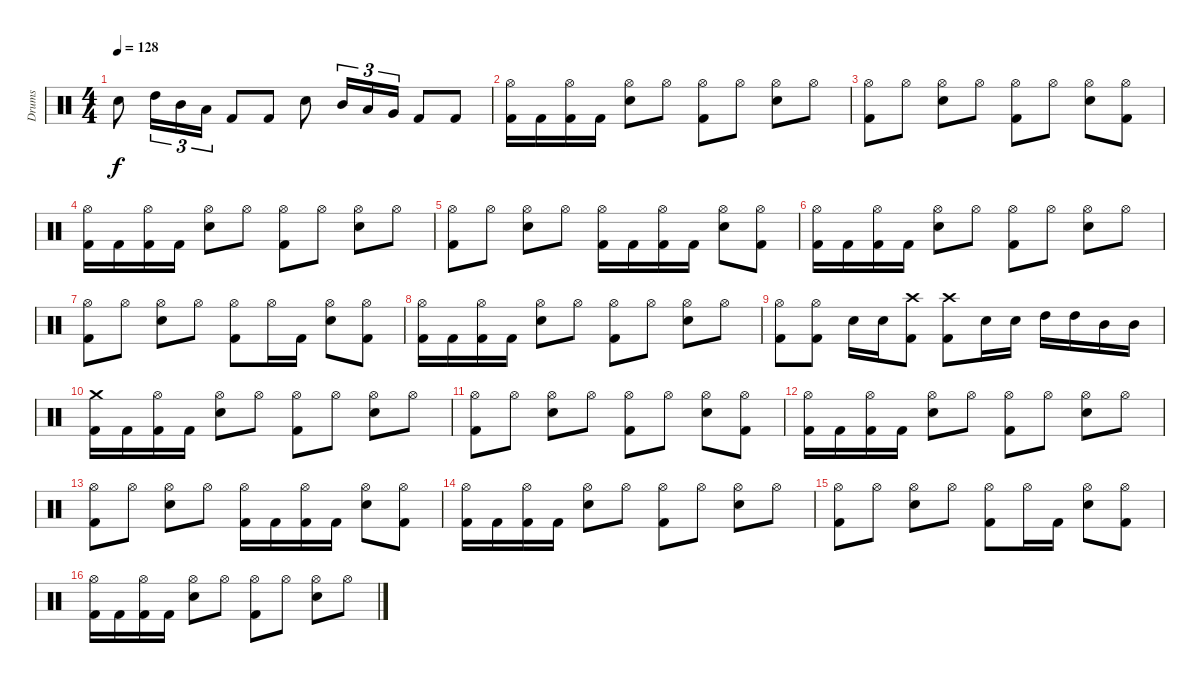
\track ("Drums" "Drums") {instrument percussion}
\staff {score}
\articulation defaults
\ts (4 4)
\tempo 128
\clef neutral
\ks c "Snare (hit) 2".8{dy f} "High Tom (hit)".16{tu (3 2)} "Mid Tom (hit)".16{tu (3 2)} "Low Tom (hit)".16{tu (3 2)} "Kick (hit) 2".8 "Kick (hit) 2".8 "Snare (hit) 2".8 "Mid Tom (hit)".16{tu (3 2)} "Low Tom (hit)".16{tu (3 2)} "Very Low Tom (hit)".16{tu (3 2)} "Kick (hit) 2".8 "Kick (hit) 2".8
|
("Hi-Hat (open)" "Kick (hit) 2").16 "Kick (hit) 2".16 ("Hi-Hat (open)" "Kick (hit) 2").16 "Kick (hit) 2".16 ("Hi-Hat (open)" "Snare (hit) 2").8 "Hi-Hat (open)".8 ("Hi-Hat (open)" "Kick (hit) 2").8 "Hi-Hat (open)".8 ("Hi-Hat (open)" "Snare (hit) 2").8 "Hi-Hat (open)".8 |
("Hi-Hat (open)" "Kick (hit) 2").8 "Hi-Hat (open)".8 ("Hi-Hat (open)" "Snare (hit) 2").8 "Hi-Hat (open)".8 ("Hi-Hat (open)" "Kick (hit) 2").8 "Hi-Hat (open)".8 ("Hi-Hat (open)" "Snare (hit) 2").8 ("Hi-Hat (open)" "Kick (hit) 2").8 |
("Hi-Hat (open)" "Kick (hit) 2").16 "Kick (hit) 2".16 ("Hi-Hat (open)" "Kick (hit) 2").16 "Kick (hit) 2".16 ("Hi-Hat (open)" "Snare (hit) 2").8 "Hi-Hat (open)".8 ("Hi-Hat (open)" "Kick (hit) 2").8 "Hi-Hat (open)".8 ("Hi-Hat (open)" "Snare (hit) 2").8 "Hi-Hat (open)".8 |
("Hi-Hat (open)" "Kick (hit) 2").8 "Hi-Hat (open)".8 ("Hi-Hat (open)" "Snare (hit) 2").8 "Hi-Hat (open)".8 ("Hi-Hat (open)" "Kick (hit) 2").16 "Kick (hit) 2".16 ("Hi-Hat (open)" "Kick (hit) 2").16 "Kick (hit) 2".16 ("Hi-Hat (open)" "Snare (hit) 2").8 ("Hi-Hat (open)" "Kick (hit) 2").8 |
("Hi-Hat (open)" "Kick (hit) 2").16 "Kick (hit) 2".16 ("Hi-Hat (open)" "Kick (hit) 2").16 "Kick (hit) 2".16 ("Hi-Hat (open)" "Snare (hit) 2").8 "Hi-Hat (open)".8 ("Hi-Hat (open)" "Kick (hit) 2").8 "Hi-Hat (open)".8 ("Hi-Hat (open)" "Snare (hit) 2").8 "Hi-Hat (open)".8 |
("Hi-Hat (open)" "Kick (hit) 2").8 "Hi-Hat (open)".8 ("Hi-Hat (open)" "Snare (hit) 2").8 "Hi-Hat (open)".8 ("Hi-Hat (open)" "Kick (hit) 2").8 "Hi-Hat (open)".16 "Kick (hit) 2".16 ("Hi-Hat (open)" "Snare (hit) 2").8 ("Hi-Hat (open)" "Kick (hit) 2").8 |
("Hi-Hat (open)" "Kick (hit) 2").16 "Kick (hit) 2".16 ("Hi-Hat (open)" "Kick (hit) 2").16 "Kick (hit) 2".16 ("Hi-Hat (open)" "Snare (hit) 2").8 "Hi-Hat (open)".8 ("Hi-Hat (open)" "Kick (hit) 2").8 "Hi-Hat (open)".8 ("Hi-Hat (open)" "Snare (hit) 2").8 "Hi-Hat (open)".8 |
("Hi-Hat (open)" "Kick (hit) 2").8 ("Hi-Hat (open)" "Kick (hit) 2").8 "Snare (hit) 2".16 "Snare (hit) 2".16 ("Crash high (hit)" "Kick (hit) 2").8 ("Crash high (hit)" "Kick (hit) 2").8 "Snare (hit) 2".16 "Snare (hit) 2".16 "High Tom (hit)".16 "High Tom (hit)".16 "Mid Tom (hit)".16 "Mid Tom (hit)".16 |
("Crash medium (hit)" "Kick (hit) 2").16 "Kick (hit) 2".16 ("Hi-Hat (open)" "Kick (hit) 2").16 "Kick (hit) 2".16 ("Hi-Hat (open)" "Snare (hit) 2").8 "Hi-Hat (open)".8 ("Hi-Hat (open)" "Kick (hit) 2").8 "Hi-Hat (open)".8 ("Hi-Hat (open)" "Snare (hit) 2").8 "Hi-Hat (open)".8 |
("Hi-Hat (open)" "Kick (hit) 2").8 "Hi-Hat (open)".8 ("Hi-Hat (open)" "Snare (hit) 2").8 "Hi-Hat (open)".8 ("Hi-Hat (open)" "Kick (hit) 2").8 "Hi-Hat (open)".8 ("Hi-Hat (open)" "Snare (hit) 2").8 ("Hi-Hat (open)" "Kick (hit) 2").8 |
("Hi-Hat (open)" "Kick (hit) 2").16 "Kick (hit) 2".16 ("Hi-Hat (open)" "Kick (hit) 2").16 "Kick (hit) 2".16 ("Hi-Hat (open)" "Snare (hit) 2").8 "Hi-Hat (open)".8 ("Hi-Hat (open)" "Kick (hit) 2").8 "Hi-Hat (open)".8 ("Hi-Hat (open)" "Snare (hit) 2").8 "Hi-Hat (open)".8 |
("Hi-Hat (open)" "Kick (hit) 2").8 "Hi-Hat (open)".8 ("Hi-Hat (open)" "Snare (hit) 2").8 "Hi-Hat (open)".8 ("Hi-Hat (open)" "Kick (hit) 2").16 "Kick (hit) 2".16 ("Hi-Hat (open)" "Kick (hit) 2").16 "Kick (hit) 2".16 ("Hi-Hat (open)" "Snare (hit) 2").8 ("Hi-Hat (open)" "Kick (hit) 2").8 |
("Hi-Hat (open)" "Kick (hit) 2").16 "Kick (hit) 2".16 ("Hi-Hat (open)" "Kick (hit) 2").16 "Kick (hit) 2".16 ("Hi-Hat (open)" "Snare (hit) 2").8 "Hi-Hat (open)".8 ("Hi-Hat (open)" "Kick (hit) 2").8 "Hi-Hat (open)".8 ("Hi-Hat (open)" "Snare (hit) 2").8 "Hi-Hat (open)".8 |
("Hi-Hat (open)" "Kick (hit) 2").8 "Hi-Hat (open)".8 ("Hi-Hat (open)" "Snare (hit) 2").8 "Hi-Hat (open)".8 ("Hi-Hat (open)" "Kick (hit) 2").8 "Hi-Hat (open)".16 "Kick (hit) 2".16 ("Hi-Hat (open)" "Snare (hit) 2").8 ("Hi-Hat (open)" "Kick (hit) 2").8 |
("Hi-Hat (open)" "Kick (hit) 2").16 "Kick (hit) 2".16 ("Hi-Hat (open)" "Kick (hit) 2").16 "Kick (hit) 2".16 ("Hi-Hat (open)" "Snare (hit) 2").8 "Hi-Hat (open)".8 ("Hi-Hat (open)" "Kick (hit) 2").8 "Hi-Hat (open)".8 ("Hi-Hat (open)" "Snare (hit) 2").8 "Hi-Hat (open)".8
